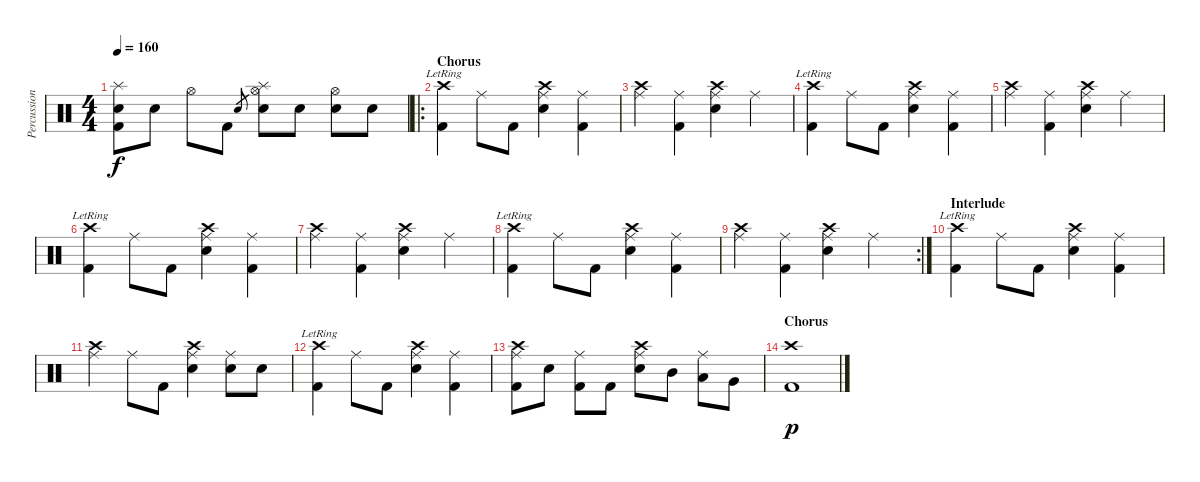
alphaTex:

\track ("Percussion" "Percussion") {instrument percussion}
\staff {score}
\articulation defaults
\ts (4 4)
\tempo 160
\clef neutral
\ks c
("Splash (hit)" "Electric Snare (hit)" "Kick (hit) 2").8{dy f} "Electric Snare (hit)".8 "Hi-Hat (open)".8 "Kick (hit) 2".8 "Electric Snare (hit)".8{gr} ("Splash (hit)" "Hi-Hat (open)" "Electric Snare (hit)").8 "Electric Snare (hit)".8 ("Hi-Hat (open)" "Electric Snare (hit)").8 "Electric Snare (hit)".8 |
\ro
\section ("" "Chorus")
("Crash high (hit)"{lr} "Kick (hit) 2").4 "Ride (middle)".8 "Kick (hit) 2".8 ("Crash high (hit)" "Ride (middle)" "Electric Snare (hit)").4 ("Ride (middle)" "Kick (hit) 2").4 |
("Crash high (hit)" "Ride (middle)").4 ("Ride (middle)" "Kick (hit) 2").4 ("Crash high (hit)" "Ride (middle)" "Electric Snare (hit)").4 "Ride (middle)".4 |
("Crash high (hit)"{lr} "Kick (hit) 2").4 "Ride (middle)".8 "Kick (hit) 2".8 ("Crash high (hit)" "Ride (middle)" "Electric Snare (hit)").4 ("Ride (middle)" "Kick (hit) 2").4 |
("Crash high (hit)" "Ride (middle)").4 ("Ride (middle)" "Kick (hit) 2").4 ("Crash high (hit)" "Ride (middle)" "Electric Snare (hit)").4 "Ride (middle)".4 |
("Crash high (hit)"{lr} "Kick (hit) 2").4 "Ride (middle)".8 "Kick (hit) 2".8 ("Crash high (hit)" "Ride (middle)" "Electric Snare (hit)").4 ("Ride (middle)" "Kick (hit) 2").4 |
("Crash high (hit)" "Ride (middle)").4 ("Ride (middle)" "Kick (hit) 2").4 ("Crash high (hit)" "Ride (middle)" "Electric Snare (hit)").4 "Ride (middle)".4 |
("Crash high (hit)"{lr} "Kick (hit) 2").4 "Ride (middle)".8 "Kick (hit) 2".8 ("Crash high (hit)" "Ride (middle)" "Electric Snare (hit)").4 ("Ride (middle)" "Kick (hit) 2").4 |
\rc 2
("Crash high (hit)" "Ride (middle)").4 ("Ride (middle)" "Kick (hit) 2").4 ("Crash high (hit)" "Ride (middle)" "Electric Snare (hit)").4 "Ride (middle)".4 |
\section ("" "Interlude")
("Crash high (hit)"{lr} "Kick (hit) 2").4 "Ride (middle)".8 "Kick (hit) 2".8 ("Crash high (hit)" "Ride (middle)" "Electric Snare (hit)").4 ("Ride (middle)" "Kick (hit) 2").4 |
("Crash high (hit)" "Ride (middle)").4 "Ride (middle)".8 "Kick (hit) 2".8 ("Crash high (hit)" "Ride (middle)" "Electric Snare (hit)").4 ("Ride (middle)" "Electric Snare (hit)").8 "Electric Snare (hit)".8 |
("Crash high (hit)"{lr} "Kick (hit) 2").4 "Ride (middle)".8 "Kick (hit) 2".8 ("Crash high (hit)" "Ride (middle)" "Electric Snare (hit)").4 ("Ride (middle)" "Kick (hit) 2").4 |
("Crash high (hit)" "Ride (middle)" "Kick (hit) 2").8 "Electric Snare (hit)".8 ("Ride (middle)" "Kick (hit) 2").8 "Kick (hit) 2".8 ("Crash high (hit)" "Ride (middle)" "Electric Snare (hit)").8 "Mid Tom (hit)".8 ("Ride (middle)" "Low Tom (hit)").8 "Very Low Tom (hit)".8 |
\section ("" "Chorus")
("Crash high (hit)" "Kick (hit) 2").1{dy p}
